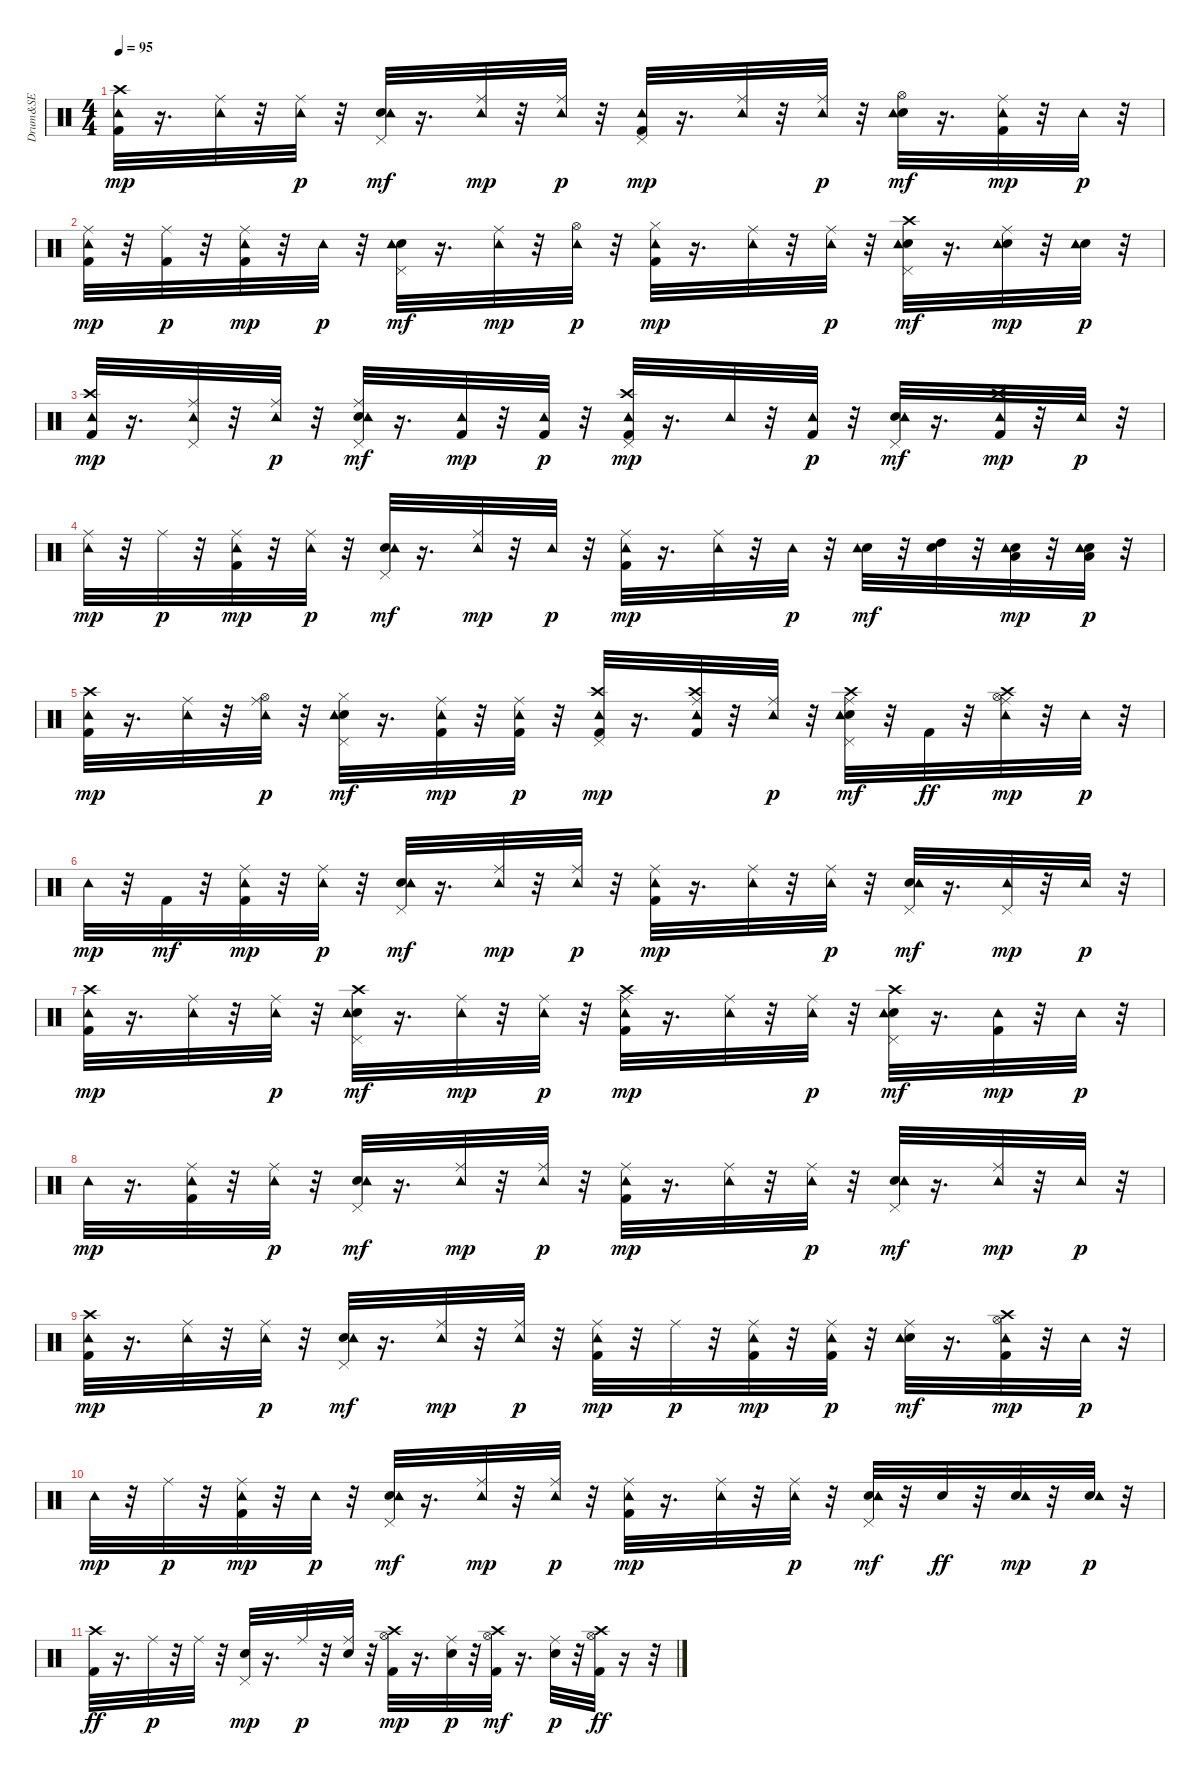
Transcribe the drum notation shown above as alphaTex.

\track ("Drum&SE" "Drum&SE") {instrument percussion}
\staff {score}
\articulation defaults
\ts (4 4)
\tempo 95
\clef neutral
\ks c
("Kick (hit) 2" "Crash high (hit)" "Tambourine (hit)").32{dy mp} r.16{d} ("Ride (middle)" "Tambourine (hit)").32 r.32 ("Ride (middle)" "Tambourine (hit)").32{dy p} r.32 ("Snare (hit) 2" "Pedal Hi-Hat (hit)" "Tambourine (hit)").32{dy mf} r.16{d} ("Ride (middle)" "Tambourine (hit)").32{dy mp} r.32 ("Ride (middle)" "Tambourine (hit)").32{dy p} r.32 ("Kick (hit) 2" "Pedal Hi-Hat (hit)" "Tambourine (hit)").32{dy mp} r.16{d} ("Ride (middle)" "Tambourine (hit)").32 r.32 ("Ride (middle)" "Tambourine (hit)").32{dy p} r.32 ("Snare (hit) 2" "Hi-Hat (open)" "Tambourine (hit)").32{dy mf} r.16{d} ("Kick (hit) 2" "Ride (middle)" "Tambourine (hit)").32{dy mp} r.32 "Tambourine (hit)".32{dy p} r.32 |
("Kick (hit) 2" "Ride (middle)" "Tambourine (hit)").32{dy mp} r.32 ("Kick (hit) 2" "Ride (middle)").32{dy p} r.32 ("Kick (hit) 2" "Ride (middle)" "Tambourine (hit)").32{dy mp} r.32 "Tambourine (hit)".32{dy p} r.32 ("Snare (hit) 2" "Pedal Hi-Hat (hit)" "Tambourine (hit)").32{dy mf} r.16{d} ("Ride (middle)" "Tambourine (hit)").32{dy mp} r.32 ("Hi-Hat (open)" "Tambourine (hit)").32{dy p} r.32 ("Kick (hit) 2" "Hi-Hat (closed)" "Tambourine (hit)").32{dy mp} r.16{d} ("Ride (middle)" "Tambourine (hit)").32 r.32 ("Ride (middle)" "Tambourine (hit)").32{dy p} r.32 ("Snare (hit) 2" "Pedal Hi-Hat (hit)" "Crash high (hit)" "Tambourine (hit)").32{dy mf} r.16{d} ("Ride (middle)" "Snare (hit) 2" "Tambourine (hit)").32{dy mp} r.32 ("Snare (hit) 2" "Tambourine (hit)").32{dy p} r.32 |
("Kick (hit) 2" "Crash high (hit)" "Tambourine (hit)").32{dy mp} r.16{d} ("Pedal Hi-Hat (hit)" "Ride (middle)" "Tambourine (hit)").32 r.32 ("Ride (middle)" "Tambourine (hit)").32{dy p} r.32 ("Snare (hit) 2" "Pedal Hi-Hat (hit)" "Ride (middle)" "Tambourine (hit)").32{dy mf} r.16{d} ("Kick (hit) 2" "Tambourine (hit)").32{dy mp} r.32 ("Kick (hit) 2" "Tambourine (hit)").32{dy p} r.32 ("Kick (hit) 2" "Crash high (hit)" "Pedal Hi-Hat (hit)" "Tambourine (hit)").32{dy mp} r.16{d} "Tambourine (hit)".32 r.32 ("Kick (hit) 2" "Tambourine (hit)").32{dy p} r.32 ("Snare (hit) 2" "Pedal Hi-Hat (hit)" "Tambourine (hit)").32{dy mf} r.16{d} ("Crash high (hit)" "Kick (hit) 2" "Tambourine (hit)").32{dy mp} r.32 "Tambourine (hit)".32{dy p} r.32 |
("Ride (middle)" "Tambourine (hit)").32{dy mp} r.32 "Ride (middle)".32{dy p} r.32 ("Kick (hit) 2" "Ride (middle)" "Tambourine (hit)").32{dy mp} r.32 ("Ride (middle)" "Tambourine (hit)").32{dy p} r.32 ("Snare (hit) 2" "Pedal Hi-Hat (hit)" "Tambourine (hit)").32{dy mf} r.16{d} ("Ride (middle)" "Tambourine (hit)").32{dy mp} r.32 "Tambourine (hit)".32{dy p} r.32 ("Kick (hit) 2" "Ride (middle)" "Tambourine (hit)").32{dy mp} r.16{d} ("Ride (middle)" "Tambourine (hit)").32 r.32 "Tambourine (hit)".32{dy p} r.32 ("Snare (hit) 2" "Tambourine (hit)").32{dy mf} r.32 ("Snare (hit) 2" "High Tom (hit)").32 r.32 ("Snare (hit) 2" "Low Tom (hit)" "Tambourine (hit)").32{dy mp} r.32 ("Snare (hit) 2" "Low Floor Tom (hit)" "Tambourine (hit)").32{dy p} r.32 |
("Kick (hit) 2" "Crash high (hit)" "Tambourine (hit)").32{dy mp} r.16{d} ("Ride (middle)" "Tambourine (hit)").32 r.32 ("Ride (middle)" "Hi-Hat (open)" "Tambourine (hit)").32{dy p} r.32 ("Snare (hit) 2" "Pedal Hi-Hat (hit)" "Hi-Hat (closed)" "Tambourine (hit)").32{dy mf} r.16{d} ("Kick (hit) 2" "Ride (middle)" "Tambourine (hit)").32{dy mp} r.32 ("Kick (hit) 2" "Ride (middle)" "Tambourine (hit)").32{dy p} r.32 ("Kick (hit) 2" "Pedal Hi-Hat (hit)" "Crash high (hit)" "Tambourine (hit)").32{dy mp} r.16{d} ("Kick (hit) 2" "Crash high (hit)" "Ride (middle)" "Tambourine (hit)").32 r.32 ("Ride (middle)" "Tambourine (hit)").32{dy p} r.32 ("Snare (hit) 2" "Crash high (hit)" "Ride (middle)" "Pedal Hi-Hat (hit)" "Tambourine (hit)").32{dy mf} r.32 "Kick (hit) 2".32{dy ff} r.32 ("Crash high (hit)" "Hi-Hat (open)" "Ride (middle)" "Tambourine (hit)").32{dy mp} r.32 "Tambourine (hit)".32{dy p} r.32 |
"Tambourine (hit)".32{dy mp} r.32 "Kick (hit) 2".32{dy mf} r.32 ("Kick (hit) 2" "Ride (middle)" "Tambourine (hit)").32{dy mp} r.32 ("Ride (middle)" "Tambourine (hit)").32{dy p} r.32 ("Snare (hit) 2" "Pedal Hi-Hat (hit)" "Tambourine (hit)").32{dy mf} r.16{d} ("Ride (middle)" "Tambourine (hit)").32{dy mp} r.32 ("Ride (middle)" "Tambourine (hit)").32{dy p} r.32 ("Kick (hit) 2" "Ride (middle)" "Tambourine (hit)").32{dy mp} r.16{d} ("Ride (middle)" "Tambourine (hit)").32 r.32 ("Ride (middle)" "Tambourine (hit)").32{dy p} r.32 ("Snare (hit) 2" "Pedal Hi-Hat (hit)" "Tambourine (hit)").32{dy mf} r.16{d} ("Pedal Hi-Hat (hit)" "Tambourine (hit)").32{dy mp} r.32 "Tambourine (hit)".32{dy p} r.32 |
("Kick (hit) 2" "Crash high (hit)" "Tambourine (hit)").32{dy mp} r.16{d} ("Ride (middle)" "Tambourine (hit)").32 r.32 ("Ride (middle)" "Tambourine (hit)").32{dy p} r.32 ("Snare (hit) 2" "Crash high (hit)" "Pedal Hi-Hat (hit)" "Tambourine (hit)").32{dy mf} r.16{d} ("Ride (middle)" "Tambourine (hit)").32{dy mp} r.32 ("Ride (middle)" "Tambourine (hit)").32{dy p} r.32 ("Kick (hit) 2" "Crash high (hit)" "Ride (middle)" "Tambourine (hit)").32{dy mp} r.16{d} ("Ride (middle)" "Tambourine (hit)").32 r.32 ("Ride (middle)" "Tambourine (hit)").32{dy p} r.32 ("Snare (hit) 2" "Crash high (hit)" "Pedal Hi-Hat (hit)" "Tambourine (hit)").32{dy mf} r.16{d} ("Kick (hit) 2" "Tambourine (hit)").32{dy mp} r.32 "Tambourine (hit)".32{dy p} r.32 |
"Tambourine (hit)".32{dy mp} r.16{d} ("Kick (hit) 2" "Ride (middle)" "Tambourine (hit)").32 r.32 ("Ride (middle)" "Tambourine (hit)").32{dy p} r.32 ("Snare (hit) 2" "Pedal Hi-Hat (hit)" "Tambourine (hit)").32{dy mf} r.16{d} ("Ride (middle)" "Tambourine (hit)").32{dy mp} r.32 ("Ride (middle)" "Tambourine (hit)").32{dy p} r.32 ("Kick (hit) 2" "Ride (middle)" "Tambourine (hit)").32{dy mp} r.16{d} ("Ride (middle)" "Tambourine (hit)").32 r.32 ("Ride (middle)" "Tambourine (hit)").32{dy p} r.32 ("Snare (hit) 2" "Pedal Hi-Hat (hit)" "Tambourine (hit)").32{dy mf} r.16{d} ("Ride (middle)" "Tambourine (hit)").32{dy mp} r.32 "Tambourine (hit)".32{dy p} r.32 |
("Kick (hit) 2" "Crash high (hit)" "Tambourine (hit)").32{dy mp} r.16{d} ("Ride (middle)" "Tambourine (hit)").32 r.32 ("Ride (middle)" "Tambourine (hit)").32{dy p} r.32 ("Snare (hit) 2" "Pedal Hi-Hat (hit)" "Tambourine (hit)").32{dy mf} r.16{d} ("Ride (middle)" "Tambourine (hit)").32{dy mp} r.32 ("Ride (middle)" "Tambourine (hit)").32{dy p} r.32 ("Kick (hit) 2" "Ride (middle)" "Tambourine (hit)").32{dy mp} r.32 "Ride (middle)".32{dy p} r.32 ("Kick (hit) 2" "Ride (middle)" "Tambourine (hit)").32{dy mp} r.32 ("Kick (hit) 2" "Ride (middle)" "Tambourine (hit)").32{dy p} r.32 ("Snare (hit) 2" "Ride (middle)" "Tambourine (hit)").32{dy mf} r.16{d} ("Kick (hit) 2" "Crash high (hit)" "Hi-Hat (open)" "Tambourine (hit)").32{dy mp} r.32 "Tambourine (hit)".32{dy p} r.32 |
"Tambourine (hit)".32{dy mp} r.32 "Ride (middle)".32{dy p} r.32 ("Kick (hit) 2" "Ride (middle)" "Tambourine (hit)").32{dy mp} r.32 "Tambourine (hit)".32{dy p} r.32 ("Snare (hit) 2" "Pedal Hi-Hat (hit)" "Tambourine (hit)").32{dy mf} r.16{d} ("Ride (middle)" "Tambourine (hit)").32{dy mp} r.32 ("Ride (middle)" "Tambourine (hit)").32{dy p} r.32 ("Kick (hit) 2" "Ride (middle)" "Tambourine (hit)").32{dy mp} r.16{d} ("Ride (middle)" "Tambourine (hit)").32 r.32 ("Ride (middle)" "Tambourine (hit)").32{dy p} r.32 ("Snare (hit) 2" "Pedal Hi-Hat (hit)" "Tambourine (hit)").32{dy mf} r.32 "Snare (hit) 2".32{dy ff} r.32 ("Snare (hit) 2" "Tambourine (hit)").32{dy mp} r.32 ("Snare (hit) 2" "Tambourine (hit)").32{dy p} r.32 |
("Kick (hit) 2" "Crash high (hit)").32{dy ff} r.16{d} "Ride (middle)".32{dy p} r.32 "Ride (middle)".32 r.32 ("Snare (hit) 2" "Pedal Hi-Hat (hit)").32{dy mp} r.16{d} "Ride (middle)".32{dy p} r.32 ("Snare (hit) 2" "Ride (middle)").32 r.32 ("Kick (hit) 2" "Hi-Hat (open)" "Crash high (hit)").32{dy mp} r.16{d} ("Snare (hit) 2" "Ride (middle)").32{dy p} r.32 ("Kick (hit) 2" "Hi-Hat (open)" "Crash high (hit)").32{dy mf} r.16{d} ("Snare (hit) 2" "Ride (middle)").32{dy p} r.32 ("Kick (hit) 2" "Hi-Hat (open)" "Crash high (hit)").32{dy ff} r.16 r.32
